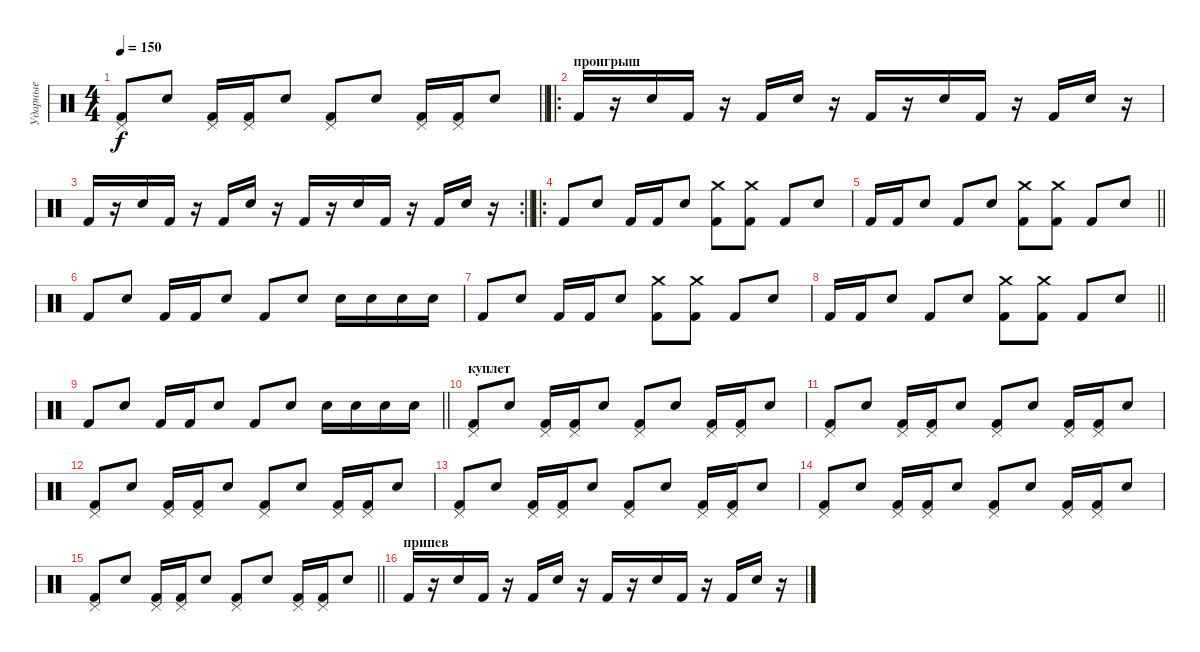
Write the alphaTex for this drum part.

\track ("Ударные" "Ударные") {instrument percussion}
\staff {score}
\articulation defaults
\ts (4 4)
\tempo 150
\clef neutral
\barLineRight lightlight
\ks c
("Kick (hit) 2" "Pedal Hi-Hat (hit)").8{dy f} "Electric Snare (hit)".8 ("Kick (hit) 2" "Pedal Hi-Hat (hit)").16 ("Kick (hit) 2" "Pedal Hi-Hat (hit)").16 "Electric Snare (hit)".8 ("Kick (hit) 2" "Pedal Hi-Hat (hit)").8 "Electric Snare (hit)".8 ("Kick (hit) 2" "Pedal Hi-Hat (hit)").16 ("Kick (hit) 2" "Pedal Hi-Hat (hit)").16 "Electric Snare (hit)".8 |
\ro
\section ("" "проигрыш")
"Kick (hit) 2".16 r.16 "Electric Snare (hit)".16 "Kick (hit) 2".16 r.16 "Kick (hit) 2".16 "Electric Snare (hit)".16 r.16 "Kick (hit) 2".16 r.16 "Electric Snare (hit)".16 "Kick (hit) 2".16 r.16 "Kick (hit) 2".16 "Electric Snare (hit)".16 r.16 |
\rc 2
\barLineRight lightlight "Kick (hit) 2".16
r.16 "Electric Snare (hit)".16 "Kick (hit) 2".16 r.16 "Kick (hit) 2".16 "Electric Snare (hit)".16 r.16 "Kick (hit) 2".16 r.16 "Electric Snare (hit)".16 "Kick (hit) 2".16 r.16 "Kick (hit) 2".16 "Electric Snare (hit)".16 r.16 |
\ro "Kick (hit) 2".8 "Electric Snare (hit)".8 "Kick (hit) 2".16 "Kick (hit) 2".16 "Electric Snare (hit)".8
("Kick (hit) 2" "Crash medium (hit)").8 ("Kick (hit) 2" "Crash medium (hit)").8 "Kick (hit) 2".8 "Electric Snare (hit)".8 |
\barLineRight lightlight "Kick (hit) 2".16 "Kick (hit) 2".16 "Electric Snare (hit)".8 "Kick (hit) 2".8 "Electric Snare (hit)".8
("Kick (hit) 2" "Crash medium (hit)").8 ("Kick (hit) 2" "Crash medium (hit)").8 "Kick (hit) 2".8 "Electric Snare (hit)".8 |
"Kick (hit) 2".8 "Electric Snare (hit)".8 "Kick (hit) 2".16 "Kick (hit) 2".16 "Electric Snare (hit)".8 "Kick (hit) 2".8 "Electric Snare (hit)".8 "Electric Snare (hit)".16 "Electric Snare (hit)".16 "Electric Snare (hit)".16 "Electric Snare (hit)".16 |
"Kick (hit) 2".8 "Electric Snare (hit)".8 "Kick (hit) 2".16 "Kick (hit) 2".16 "Electric Snare (hit)".8 ("Kick (hit) 2" "Crash medium (hit)").8 ("Kick (hit) 2" "Crash medium (hit)").8 "Kick (hit) 2".8 "Electric Snare (hit)".8 |
\barLineRight lightlight "Kick (hit) 2".16 "Kick (hit) 2".16 "Electric Snare (hit)".8 "Kick (hit) 2".8 "Electric Snare (hit)".8
("Kick (hit) 2" "Crash medium (hit)").8 ("Kick (hit) 2" "Crash medium (hit)").8 "Kick (hit) 2".8 "Electric Snare (hit)".8 |
\barLineRight lightlight "Kick (hit) 2".8 "Electric Snare (hit)".8 "Kick (hit) 2".16 "Kick (hit) 2".16 "Electric Snare (hit)".8 "Kick (hit) 2".8 "Electric Snare (hit)".8 "Electric Snare (hit)".16 "Electric Snare (hit)".16 "Electric Snare (hit)".16 "Electric Snare (hit)".16
|
\section ("" "куплет")
("Kick (hit) 2" "Pedal Hi-Hat (hit)").8 "Electric Snare (hit)".8 ("Kick (hit) 2" "Pedal Hi-Hat (hit)").16 ("Kick (hit) 2" "Pedal Hi-Hat (hit)").16 "Electric Snare (hit)".8 ("Kick (hit) 2" "Pedal Hi-Hat (hit)").8 "Electric Snare (hit)".8 ("Kick (hit) 2" "Pedal Hi-Hat (hit)").16 ("Kick (hit) 2" "Pedal Hi-Hat (hit)").16 "Electric Snare (hit)".8 |
("Kick (hit) 2" "Pedal Hi-Hat (hit)").8 "Electric Snare (hit)".8 ("Kick (hit) 2" "Pedal Hi-Hat (hit)").16 ("Kick (hit) 2" "Pedal Hi-Hat (hit)").16 "Electric Snare (hit)".8 ("Kick (hit) 2" "Pedal Hi-Hat (hit)").8 "Electric Snare (hit)".8 ("Kick (hit) 2" "Pedal Hi-Hat (hit)").16 ("Kick (hit) 2" "Pedal Hi-Hat (hit)").16 "Electric Snare (hit)".8 |
("Kick (hit) 2" "Pedal Hi-Hat (hit)").8 "Electric Snare (hit)".8 ("Kick (hit) 2" "Pedal Hi-Hat (hit)").16 ("Kick (hit) 2" "Pedal Hi-Hat (hit)").16 "Electric Snare (hit)".8 ("Kick (hit) 2" "Pedal Hi-Hat (hit)").8 "Electric Snare (hit)".8 ("Kick (hit) 2" "Pedal Hi-Hat (hit)").16 ("Kick (hit) 2" "Pedal Hi-Hat (hit)").16 "Electric Snare (hit)".8 |
("Kick (hit) 2" "Pedal Hi-Hat (hit)").8 "Electric Snare (hit)".8 ("Kick (hit) 2" "Pedal Hi-Hat (hit)").16 ("Kick (hit) 2" "Pedal Hi-Hat (hit)").16 "Electric Snare (hit)".8 ("Kick (hit) 2" "Pedal Hi-Hat (hit)").8 "Electric Snare (hit)".8 ("Kick (hit) 2" "Pedal Hi-Hat (hit)").16 ("Kick (hit) 2" "Pedal Hi-Hat (hit)").16 "Electric Snare (hit)".8 |
("Kick (hit) 2" "Pedal Hi-Hat (hit)").8 "Electric Snare (hit)".8 ("Kick (hit) 2" "Pedal Hi-Hat (hit)").16 ("Kick (hit) 2" "Pedal Hi-Hat (hit)").16 "Electric Snare (hit)".8 ("Kick (hit) 2" "Pedal Hi-Hat (hit)").8 "Electric Snare (hit)".8 ("Kick (hit) 2" "Pedal Hi-Hat (hit)").16 ("Kick (hit) 2" "Pedal Hi-Hat (hit)").16 "Electric Snare (hit)".8 |
\barLineRight lightlight
("Kick (hit) 2" "Pedal Hi-Hat (hit)").8 "Electric Snare (hit)".8 ("Kick (hit) 2" "Pedal Hi-Hat (hit)").16 ("Kick (hit) 2" "Pedal Hi-Hat (hit)").16 "Electric Snare (hit)".8 ("Kick (hit) 2" "Pedal Hi-Hat (hit)").8 "Electric Snare (hit)".8 ("Kick (hit) 2" "Pedal Hi-Hat (hit)").16 ("Kick (hit) 2" "Pedal Hi-Hat (hit)").16 "Electric Snare (hit)".8 |
\section ("" "припев")
"Kick (hit) 2".16 r.16 "Electric Snare (hit)".16 "Kick (hit) 2".16 r.16 "Kick (hit) 2".16 "Electric Snare (hit)".16 r.16 "Kick (hit) 2".16 r.16 "Electric Snare (hit)".16 "Kick (hit) 2".16 r.16 "Kick (hit) 2".16 "Electric Snare (hit)".16 r.16
